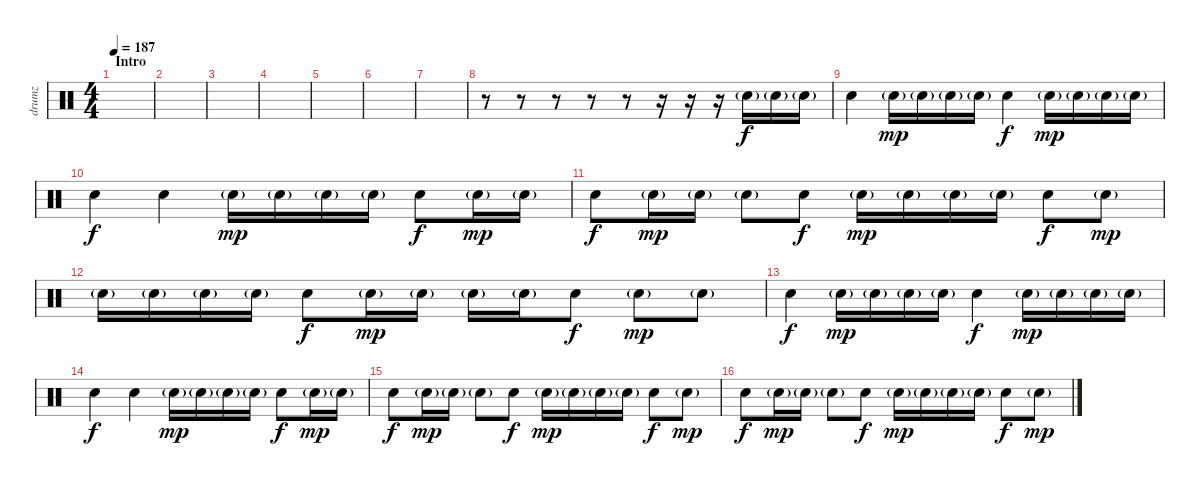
\track ("drumz" "drumz") {instrument percussion}
\staff {score}
\articulation defaults
\ts (4 4)
\section ("" "Intro")
\tempo 187
\clef neutral
\ks c
|
|
|
|
|
|
|
r.8 r.8 r.8 r.8 r.8 r.16 r.16 r.16 "Electric Snare (hit)"{g}.16 "Electric Snare (hit)"{g}.16 "Electric Snare (hit)"{g}.16 |
"Electric Snare (hit)".4{dy f} "Electric Snare (hit)"{g}.16{dy mp} "Electric Snare (hit)"{g}.16 "Electric Snare (hit)"{g}.16 "Electric Snare (hit)"{g}.16 "Electric Snare (hit)".4{dy f} "Electric Snare (hit)"{g}.16{dy mp} "Electric Snare (hit)"{g}.16 "Electric Snare (hit)"{g}.16 "Electric Snare (hit)"{g}.16 |
"Electric Snare (hit)".4{dy f} "Electric Snare (hit)".4 "Electric Snare (hit)"{g}.16{dy mp} "Electric Snare (hit)"{g}.16 "Electric Snare (hit)"{g}.16 "Electric Snare (hit)"{g}.16 "Electric Snare (hit)".8{dy f} "Electric Snare (hit)"{g}.16{dy mp} "Electric Snare (hit)"{g}.16 |
"Electric Snare (hit)".8{dy f} "Electric Snare (hit)"{g}.16{dy mp} "Electric Snare (hit)"{g}.16 "Electric Snare (hit)"{g}.8 "Electric Snare (hit)".8{dy f} "Electric Snare (hit)"{g}.16{dy mp} "Electric Snare (hit)"{g}.16 "Electric Snare (hit)"{g}.16 "Electric Snare (hit)"{g}.16 "Electric Snare (hit)".8{dy f} "Electric Snare (hit)"{g}.8{dy mp} |
"Electric Snare (hit)"{g}.16 "Electric Snare (hit)"{g}.16 "Electric Snare (hit)"{g}.16 "Electric Snare (hit)"{g}.16 "Electric Snare (hit)".8{dy f} "Electric Snare (hit)"{g}.16{dy mp} "Electric Snare (hit)"{g}.16 "Electric Snare (hit)"{g}.16 "Electric Snare (hit)"{g}.16 "Electric Snare (hit)".8{dy f} "Electric Snare (hit)"{g}.8{dy mp} "Electric Snare (hit)"{g}.8 |
"Electric Snare (hit)".4{dy f} "Electric Snare (hit)"{g}.16{dy mp} "Electric Snare (hit)"{g}.16 "Electric Snare (hit)"{g}.16 "Electric Snare (hit)"{g}.16 "Electric Snare (hit)".4{dy f} "Electric Snare (hit)"{g}.16{dy mp} "Electric Snare (hit)"{g}.16 "Electric Snare (hit)"{g}.16 "Electric Snare (hit)"{g}.16 |
"Electric Snare (hit)".4{dy f} "Electric Snare (hit)".4 "Electric Snare (hit)"{g}.16{dy mp} "Electric Snare (hit)"{g}.16 "Electric Snare (hit)"{g}.16 "Electric Snare (hit)"{g}.16 "Electric Snare (hit)".8{dy f} "Electric Snare (hit)"{g}.16{dy mp} "Electric Snare (hit)"{g}.16 |
"Electric Snare (hit)".8{dy f} "Electric Snare (hit)"{g}.16{dy mp} "Electric Snare (hit)"{g}.16 "Electric Snare (hit)"{g}.8 "Electric Snare (hit)".8{dy f} "Electric Snare (hit)"{g}.16{dy mp} "Electric Snare (hit)"{g}.16 "Electric Snare (hit)"{g}.16 "Electric Snare (hit)"{g}.16 "Electric Snare (hit)".8{dy f} "Electric Snare (hit)"{g}.8{dy mp} |
"Electric Snare (hit)".8{dy f} "Electric Snare (hit)"{g}.16{dy mp} "Electric Snare (hit)"{g}.16 "Electric Snare (hit)"{g}.8 "Electric Snare (hit)".8{dy f} "Electric Snare (hit)"{g}.16{dy mp} "Electric Snare (hit)"{g}.16 "Electric Snare (hit)"{g}.16 "Electric Snare (hit)"{g}.16 "Electric Snare (hit)".8{dy f} "Electric Snare (hit)"{g}.8{dy mp}
